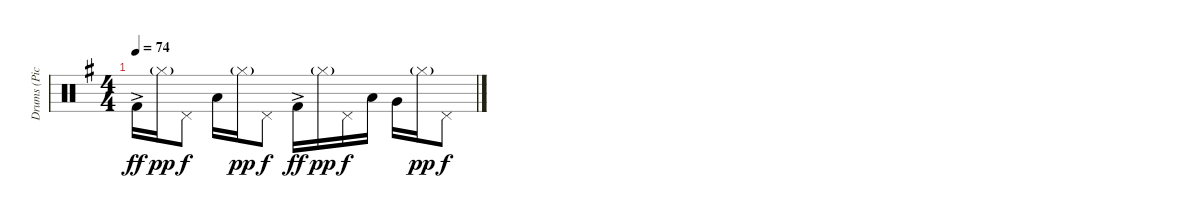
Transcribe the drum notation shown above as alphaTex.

\track ("Drums (Pick)" "Drums (Pic") {instrument percussion}
\staff {score}
\articulation defaults
\ts (4 4)
\tempo 74
\clef neutral
\ks g "Kick (hit) 2"{ac}.16{dy ff} "Hi-Hat (closed)"{g}.16{dy pp} "Pedal Hi-Hat (hit)".8{dy f} "Low Tom (hit)".16 "Hi-Hat (closed)"{g}.16{dy pp} "Pedal Hi-Hat (hit)".8{dy f} "Kick (hit) 2"{ac}.16{dy ff} "Hi-Hat (closed)"{g}.16{dy pp} "Pedal Hi-Hat (hit)".16{dy f} "Low Tom (hit)".16 "Very Low Tom (hit)".16 "Hi-Hat (closed)"{g}.16{dy pp} "Pedal Hi-Hat (hit)".8{dy f}
